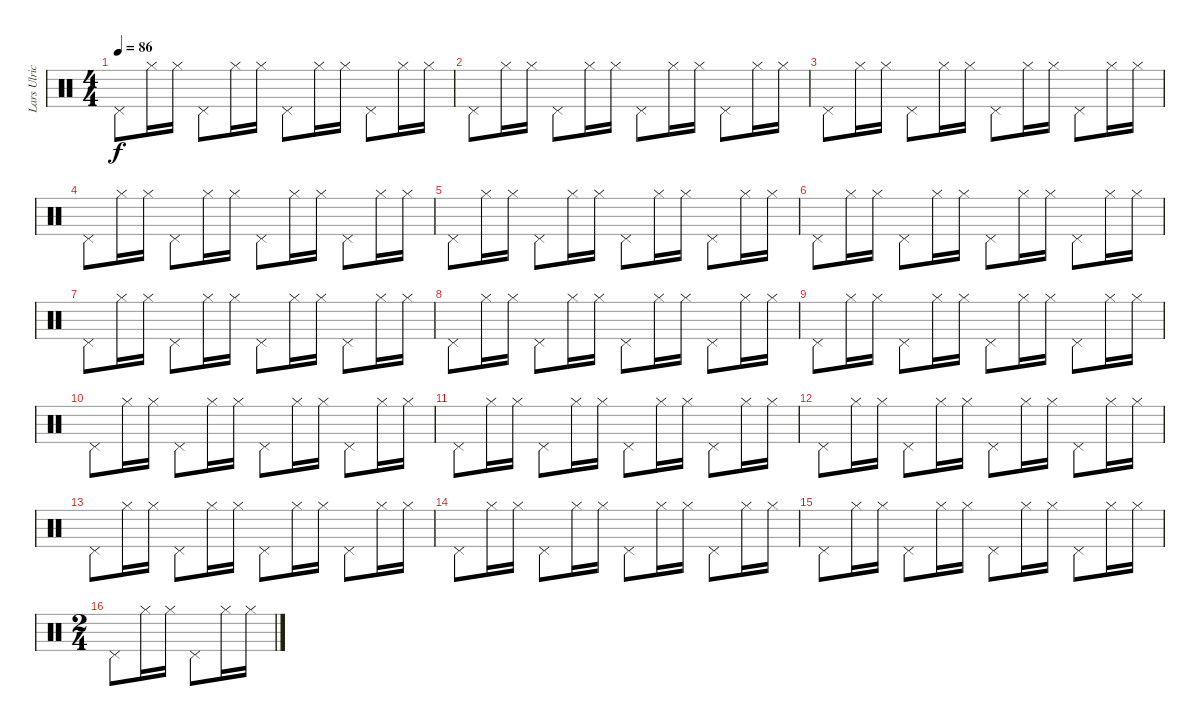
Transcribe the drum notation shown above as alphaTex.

\track ("Lars Ulrich" "Lars Ulric") {instrument percussion}
\staff {score}
\articulation defaults
\ts (4 4)
\tempo 86
\clef neutral
\ks c "Pedal Hi-Hat (hit)".8{dy f volume 0} "Hi-Hat (closed)".16{volume 16} "Hi-Hat (closed)".16 "Pedal Hi-Hat (hit)".8 "Hi-Hat (closed)".16 "Hi-Hat (closed)".16 "Pedal Hi-Hat (hit)".8 "Hi-Hat (closed)".16 "Hi-Hat (closed)".16 "Pedal Hi-Hat (hit)".8 "Hi-Hat (closed)".16 "Hi-Hat (closed)".16
|
"Pedal Hi-Hat (hit)".8 "Hi-Hat (closed)".16 "Hi-Hat (closed)".16 "Pedal Hi-Hat (hit)".8 "Hi-Hat (closed)".16 "Hi-Hat (closed)".16 "Pedal Hi-Hat (hit)".8 "Hi-Hat (closed)".16 "Hi-Hat (closed)".16 "Pedal Hi-Hat (hit)".8 "Hi-Hat (closed)".16 "Hi-Hat (closed)".16 |
"Pedal Hi-Hat (hit)".8 "Hi-Hat (closed)".16 "Hi-Hat (closed)".16 "Pedal Hi-Hat (hit)".8 "Hi-Hat (closed)".16 "Hi-Hat (closed)".16 "Pedal Hi-Hat (hit)".8 "Hi-Hat (closed)".16 "Hi-Hat (closed)".16 "Pedal Hi-Hat (hit)".8 "Hi-Hat (closed)".16 "Hi-Hat (closed)".16 |
"Pedal Hi-Hat (hit)".8 "Hi-Hat (closed)".16 "Hi-Hat (closed)".16 "Pedal Hi-Hat (hit)".8 "Hi-Hat (closed)".16 "Hi-Hat (closed)".16 "Pedal Hi-Hat (hit)".8 "Hi-Hat (closed)".16 "Hi-Hat (closed)".16 "Pedal Hi-Hat (hit)".8 "Hi-Hat (closed)".16 "Hi-Hat (closed)".16 |
"Pedal Hi-Hat (hit)".8 "Hi-Hat (closed)".16 "Hi-Hat (closed)".16 "Pedal Hi-Hat (hit)".8 "Hi-Hat (closed)".16 "Hi-Hat (closed)".16 "Pedal Hi-Hat (hit)".8 "Hi-Hat (closed)".16 "Hi-Hat (closed)".16 "Pedal Hi-Hat (hit)".8 "Hi-Hat (closed)".16 "Hi-Hat (closed)".16 |
"Pedal Hi-Hat (hit)".8 "Hi-Hat (closed)".16 "Hi-Hat (closed)".16 "Pedal Hi-Hat (hit)".8 "Hi-Hat (closed)".16 "Hi-Hat (closed)".16 "Pedal Hi-Hat (hit)".8 "Hi-Hat (closed)".16 "Hi-Hat (closed)".16 "Pedal Hi-Hat (hit)".8 "Hi-Hat (closed)".16 "Hi-Hat (closed)".16 |
"Pedal Hi-Hat (hit)".8 "Hi-Hat (closed)".16 "Hi-Hat (closed)".16 "Pedal Hi-Hat (hit)".8 "Hi-Hat (closed)".16 "Hi-Hat (closed)".16 "Pedal Hi-Hat (hit)".8 "Hi-Hat (closed)".16 "Hi-Hat (closed)".16 "Pedal Hi-Hat (hit)".8 "Hi-Hat (closed)".16 "Hi-Hat (closed)".16 |
"Pedal Hi-Hat (hit)".8 "Hi-Hat (closed)".16 "Hi-Hat (closed)".16 "Pedal Hi-Hat (hit)".8 "Hi-Hat (closed)".16 "Hi-Hat (closed)".16 "Pedal Hi-Hat (hit)".8 "Hi-Hat (closed)".16 "Hi-Hat (closed)".16 "Pedal Hi-Hat (hit)".8 "Hi-Hat (closed)".16 "Hi-Hat (closed)".16 |
"Pedal Hi-Hat (hit)".8 "Hi-Hat (closed)".16 "Hi-Hat (closed)".16 "Pedal Hi-Hat (hit)".8 "Hi-Hat (closed)".16 "Hi-Hat (closed)".16 "Pedal Hi-Hat (hit)".8 "Hi-Hat (closed)".16 "Hi-Hat (closed)".16 "Pedal Hi-Hat (hit)".8 "Hi-Hat (closed)".16 "Hi-Hat (closed)".16 |
"Pedal Hi-Hat (hit)".8 "Hi-Hat (closed)".16 "Hi-Hat (closed)".16 "Pedal Hi-Hat (hit)".8 "Hi-Hat (closed)".16 "Hi-Hat (closed)".16 "Pedal Hi-Hat (hit)".8 "Hi-Hat (closed)".16 "Hi-Hat (closed)".16 "Pedal Hi-Hat (hit)".8 "Hi-Hat (closed)".16 "Hi-Hat (closed)".16 |
"Pedal Hi-Hat (hit)".8 "Hi-Hat (closed)".16 "Hi-Hat (closed)".16 "Pedal Hi-Hat (hit)".8 "Hi-Hat (closed)".16 "Hi-Hat (closed)".16 "Pedal Hi-Hat (hit)".8 "Hi-Hat (closed)".16 "Hi-Hat (closed)".16 "Pedal Hi-Hat (hit)".8 "Hi-Hat (closed)".16 "Hi-Hat (closed)".16 |
"Pedal Hi-Hat (hit)".8 "Hi-Hat (closed)".16 "Hi-Hat (closed)".16 "Pedal Hi-Hat (hit)".8 "Hi-Hat (closed)".16 "Hi-Hat (closed)".16 "Pedal Hi-Hat (hit)".8 "Hi-Hat (closed)".16 "Hi-Hat (closed)".16 "Pedal Hi-Hat (hit)".8 "Hi-Hat (closed)".16 "Hi-Hat (closed)".16 |
"Pedal Hi-Hat (hit)".8 "Hi-Hat (closed)".16 "Hi-Hat (closed)".16 "Pedal Hi-Hat (hit)".8 "Hi-Hat (closed)".16 "Hi-Hat (closed)".16 "Pedal Hi-Hat (hit)".8 "Hi-Hat (closed)".16 "Hi-Hat (closed)".16 "Pedal Hi-Hat (hit)".8 "Hi-Hat (closed)".16 "Hi-Hat (closed)".16 |
"Pedal Hi-Hat (hit)".8 "Hi-Hat (closed)".16 "Hi-Hat (closed)".16 "Pedal Hi-Hat (hit)".8 "Hi-Hat (closed)".16 "Hi-Hat (closed)".16 "Pedal Hi-Hat (hit)".8 "Hi-Hat (closed)".16 "Hi-Hat (closed)".16 "Pedal Hi-Hat (hit)".8 "Hi-Hat (closed)".16 "Hi-Hat (closed)".16 |
"Pedal Hi-Hat (hit)".8 "Hi-Hat (closed)".16 "Hi-Hat (closed)".16 "Pedal Hi-Hat (hit)".8 "Hi-Hat (closed)".16 "Hi-Hat (closed)".16 "Pedal Hi-Hat (hit)".8 "Hi-Hat (closed)".16 "Hi-Hat (closed)".16 "Pedal Hi-Hat (hit)".8 "Hi-Hat (closed)".16 "Hi-Hat (closed)".16 |
\ts (2 4)
"Pedal Hi-Hat (hit)".8 "Hi-Hat (closed)".16 "Hi-Hat (closed)".16 "Pedal Hi-Hat (hit)".8 "Hi-Hat (closed)".16 "Hi-Hat (closed)".16
